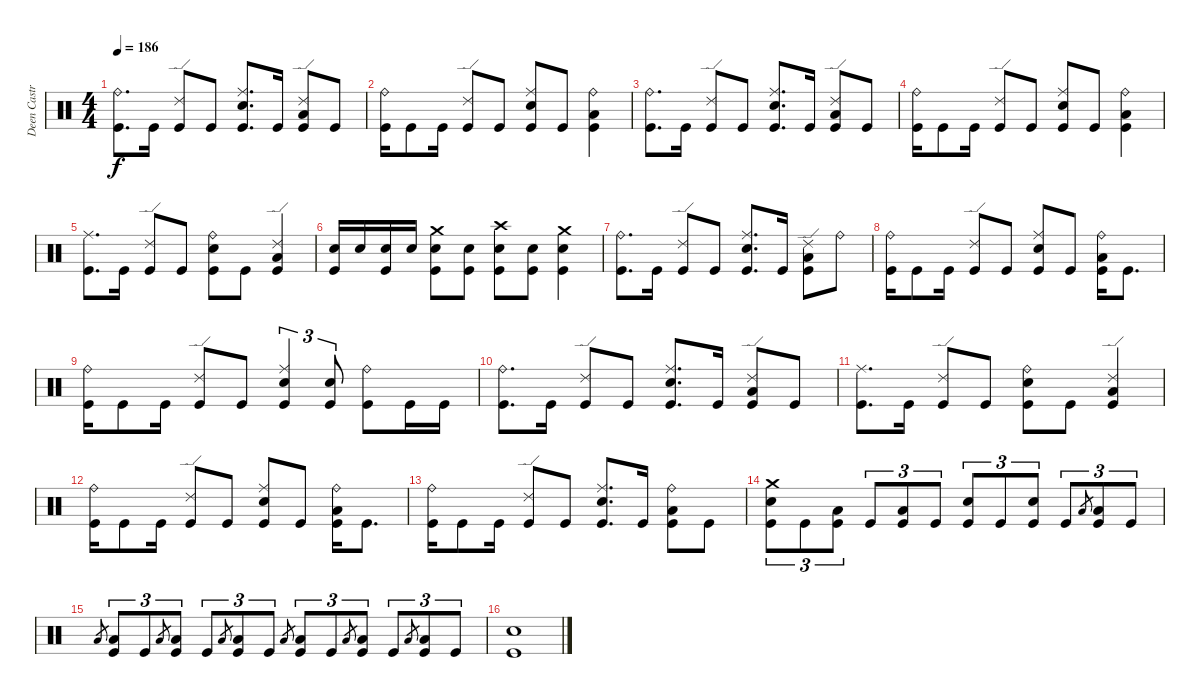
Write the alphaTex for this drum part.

\track ("Deen Castronovo" "Deen Castr") {instrument percussion}
\staff {score}
\articulation defaults
\ts (4 4)
\tempo 186
\clef neutral
\ks c
("Ride (bell)" "Kick (hit)").8{d dy f} "Kick (hit)".16 ("Ride (edge) 2" "Kick (hit)").8 "Kick (hit)".8 ("Ride (middle)" "Snare (hit) 2" "Kick (hit)").8{d} "Kick (hit)".16 ("Ride (edge) 2" "Low Tom (hit)" "Kick (hit)").8 "Kick (hit)".8 |
("Ride (bell)" "Kick (hit)").16 "Kick (hit)".8 "Kick (hit)".16 ("Ride (edge) 2" "Kick (hit)").8 "Kick (hit)".8 ("Ride (middle)" "Snare (hit) 2" "Kick (hit)").8 "Kick (hit)".8 ("Ride (bell)" "Low Tom (hit)" "Kick (hit)").4 |
("Ride (bell)" "Kick (hit)").8{d} "Kick (hit)".16 ("Ride (edge) 2" "Kick (hit)").8 "Kick (hit)".8 ("Ride (middle)" "Snare (hit) 2" "Kick (hit)").8{d} "Kick (hit)".16 ("Ride (edge) 2" "Low Tom (hit)" "Kick (hit)").8 "Kick (hit)".8 |
("Ride (bell)" "Kick (hit)").16 "Kick (hit)".8 "Kick (hit)".16 ("Ride (edge) 2" "Kick (hit)").8 "Kick (hit)".8 ("Ride (middle)" "Snare (hit) 2" "Kick (hit)").8 "Kick (hit)".8 ("Ride (bell)" "Low Tom (hit)" "Kick (hit)").4 |
("Ride (middle)" "Kick (hit)").8{d} "Kick (hit)".16 ("Ride (edge) 2" "Kick (hit)").8 "Kick (hit)".8 ("Ride (bell)" "Snare (hit) 2" "Kick (hit)").8 "Kick (hit)".8 ("Ride (edge) 2" "Low Tom (hit)" "Kick (hit)").4 |
("Snare (hit) 2" "Kick (hit)").16 "Snare (hit) 2".16 ("Snare (hit) 2" "Kick (hit)").16 "Snare (hit) 2".16 ("Crash medium (hit)" "Snare (hit) 2" "Kick (hit)").8 ("Snare (hit) 2" "Kick (hit)").8 ("Crash high (hit)" "Snare (hit) 2" "Kick (hit)").8 ("Snare (hit) 2" "Kick (hit)").8 ("Crash medium (hit)" "Snare (hit) 2" "Kick (hit)").4 |
("Ride (bell)" "Kick (hit)").8{d} "Kick (hit)".16 ("Ride (edge) 2" "Kick (hit)").8 "Kick (hit)".8 ("Ride (middle)" "Snare (hit) 2" "Kick (hit)").8{d} "Kick (hit)".16 ("Ride (edge) 2" "Low Tom (hit)" "Kick (hit)").8 "Ride (bell)".8 |
("Ride (bell)" "Kick (hit)").16 "Kick (hit)".8 "Kick (hit)".16 ("Ride (edge) 2" "Kick (hit)").8 "Kick (hit)".8 ("Ride (middle)" "Snare (hit) 2" "Kick (hit)").8 "Kick (hit)".8 ("Ride (bell)" "Low Tom (hit)" "Kick (hit)").16 "Kick (hit)".8{d} |
("Ride (bell)" "Kick (hit)").16 "Kick (hit)".8 "Kick (hit)".16 ("Ride (edge) 2" "Kick (hit)").8 "Kick (hit)".8 ("Ride (middle)" "Snare (hit) 2" "Kick (hit)").4{tu (3 2)} ("Snare (hit) 2" "Kick (hit)").8{tu (3 2)} ("Ride (bell)" "Kick (hit)").8 "Kick (hit)".16 "Kick (hit)".16 |
("Ride (bell)" "Kick (hit)").8{d} "Kick (hit)".16 ("Ride (edge) 2" "Kick (hit)").8 "Kick (hit)".8 ("Ride (middle)" "Snare (hit) 2" "Kick (hit)").8{d} "Kick (hit)".16 ("Ride (edge) 2" "Low Tom (hit)" "Kick (hit)").8 "Kick (hit)".8 |
("Ride (middle)" "Kick (hit)").8{d} "Kick (hit)".16 ("Ride (edge) 2" "Kick (hit)").8 "Kick (hit)".8 ("Ride (bell)" "Snare (hit) 2" "Kick (hit)").8 "Kick (hit)".8 ("Ride (edge) 2" "Low Tom (hit)" "Kick (hit)").4 |
("Ride (bell)" "Kick (hit)").16 "Kick (hit)".8 "Kick (hit)".16 ("Ride (edge) 2" "Kick (hit)").8 "Kick (hit)".8 ("Ride (middle)" "Snare (hit) 2" "Kick (hit)").8 "Kick (hit)".8 ("Ride (bell)" "Low Tom (hit)" "Kick (hit)").16 "Kick (hit)".8{d} |
("Ride (bell)" "Kick (hit)").16 "Kick (hit)".8 "Kick (hit)".16 ("Ride (edge) 2" "Kick (hit)").8 "Kick (hit)".8 ("Ride (middle)" "Snare (hit) 2" "Kick (hit)").8{d} "Kick (hit)".16 ("Ride (bell)" "Low Tom (hit)" "Kick (hit)").8 "Kick (hit)".8 |
("Crash medium (hit)" "Snare (hit) 2" "Kick (hit)").8{tu (3 2)} "Kick (hit)".8{tu (3 2)} ("Low Tom (hit)" "Kick (hit)").8{tu (3 2)} "Kick (hit)".8{tu (3 2)} ("Low Tom (hit)" "Kick (hit)").8{tu (3 2)} "Kick (hit)".8{tu (3 2)} ("Snare (hit) 2" "Kick (hit)").8{tu (3 2)} "Kick (hit)".8{tu (3 2)} ("Snare (hit) 2" "Kick (hit)").8{tu (3 2)} "Kick (hit)".8{tu (3 2)} "Low Tom (hit)".8{gr} ("Low Tom (hit)" "Kick (hit)").8{tu (3 2)} "Kick (hit)".8{tu (3 2)} |
"Low Tom (hit)".8{gr} ("Low Tom (hit)" "Kick (hit)").8{tu (3 2)} "Kick (hit)".8{tu (3 2)} "Low Tom (hit)".8{gr} ("Low Tom (hit)" "Kick (hit)").8{tu (3 2)} "Kick (hit)".8{tu (3 2)} "Low Tom (hit)".8{gr} ("Low Tom (hit)" "Kick (hit)").8{tu (3 2)} "Kick (hit)".8{tu (3 2)} "Low Tom (hit)".8{gr} ("Low Tom (hit)" "Kick (hit)").8{tu (3 2)} "Kick (hit)".8{tu (3 2)} "Low Tom (hit)".8{gr} ("Low Tom (hit)" "Kick (hit)").8{tu (3 2)} "Kick (hit)".8{tu (3 2)} "Low Tom (hit)".8{gr} ("Low Tom (hit)" "Kick (hit)").8{tu (3 2)} "Kick (hit)".8{tu (3 2)} |
("Snare (hit) 2" "Kick (hit)").1
